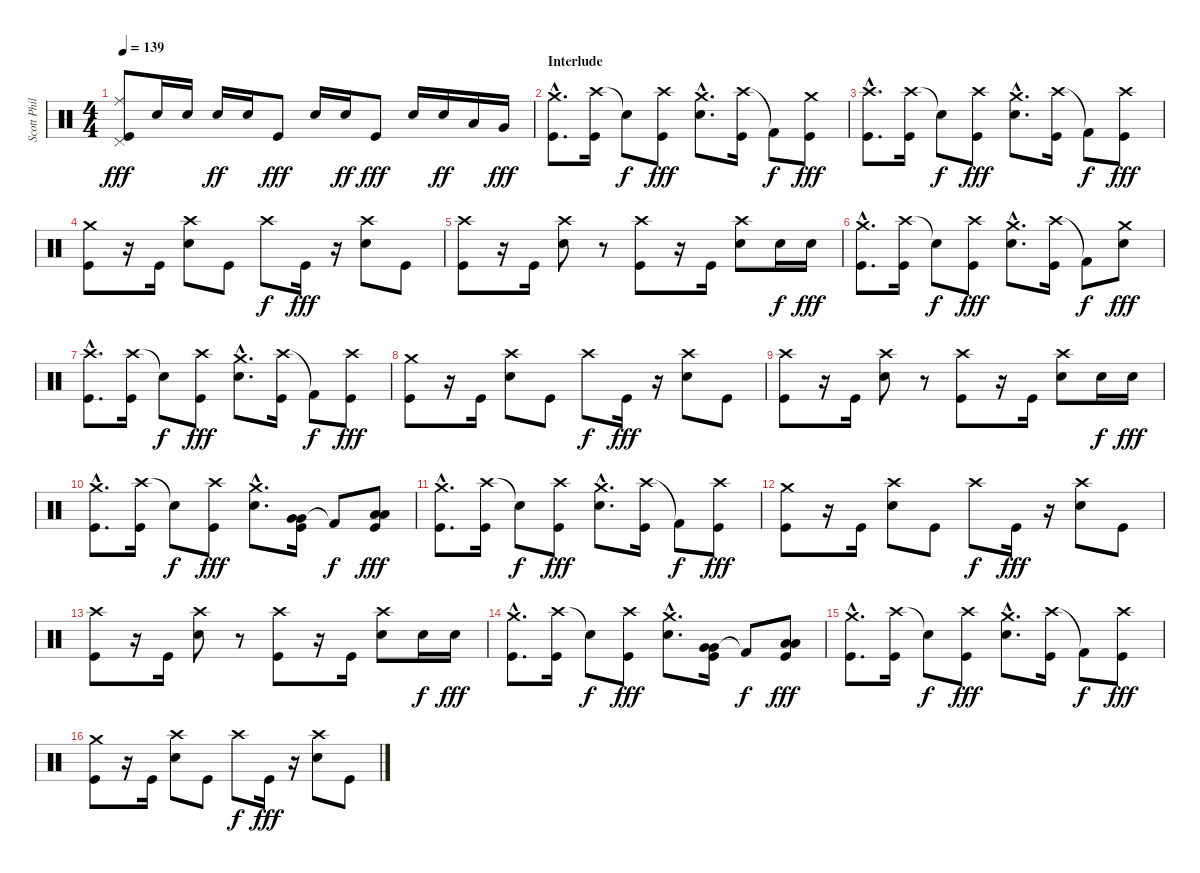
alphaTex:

\track ("Scott Phillips - Drums" "Scott Phil") {instrument percussion}
\staff {score}
\articulation defaults
\ts (4 4)
\tempo 139
\clef neutral
\ks c
("Pedal Hi-Hat (hit)" "Ride (middle)" "Kick (hit)").8{dy fff} "Electric Snare (hit)".16 "Electric Snare (hit)".16 "Electric Snare (hit)".16{dy ff} "Electric Snare (hit)".16 "Kick (hit)".8{dy fff} "Electric Snare (hit)".16 "Electric Snare (hit)".16{dy ff} "Kick (hit)".8{dy fff} "Electric Snare (hit)".16 "Electric Snare (hit)".16{dy ff} "Low Tom (hit)".16 "Very Low Tom (hit)".16{dy fff} |
\section ("" "Interlude")
("Crash medium (hit)"{hac} "Kick (hit)"{hac}).8{d} ("Crash high (hit)" "Kick (hit)").16 "Snare (hit)"{t}.8{dy f} ("Crash high (hit)" "Kick (hit)").8{dy fff} ("Crash medium (hit)"{hac} "Electric Snare (hit)"{hac}).8{d} ("Crash high (hit)" "Kick (hit)").16 "Kick (hit) 2"{t}.8{dy f} ("Crash medium (hit)" "Kick (hit)").8{dy fff} |
("Crash high (hit)"{hac} "Kick (hit)"{hac}).8{d} ("Crash high (hit)" "Kick (hit)").16 "Snare (hit)"{t}.8{dy f} ("Crash high (hit)" "Kick (hit)").8{dy fff} ("Crash medium (hit)"{hac} "Electric Snare (hit)"{hac}).8{d} ("Crash high (hit)" "Kick (hit)").16 "Kick (hit) 2"{t}.8{dy f} ("Crash high (hit)" "Kick (hit)").8{dy fff} |
("Crash medium (hit)" "Kick (hit)").8 r.16 "Kick (hit)".16 ("Crash high (hit)" "Electric Snare (hit)").8 "Kick (hit)".8 "Crash high (hit)".8{dy f} "Kick (hit)".16{dy fff} r.16 ("Crash high (hit)" "Electric Snare (hit)").8 "Kick (hit)".8 |
("Crash high (hit)" "Kick (hit)").8 r.16 "Kick (hit)".16 ("Crash high (hit)" "Electric Snare (hit)").8 r.8 ("Crash high (hit)" "Kick (hit)").8 r.16 "Kick (hit)".16 ("Crash high (hit)" "Electric Snare (hit)").8 "Electric Snare (hit)".16{dy f} "Electric Snare (hit)".16{dy fff} |
("Crash medium (hit)"{hac} "Kick (hit)"{hac}).8{d} ("Crash high (hit)" "Kick (hit)").16 "Snare (hit)"{t}.8{dy f} ("Crash high (hit)" "Kick (hit)").8{dy fff} ("Crash medium (hit)"{hac} "Electric Snare (hit)"{hac}).8{d} ("Crash high (hit)" "Kick (hit)").16 "Kick (hit) 2"{t}.8{dy f} ("Crash medium (hit)" "Electric Snare (hit)").8{dy fff} |
("Crash high (hit)"{hac} "Kick (hit)"{hac}).8{d} ("Crash high (hit)" "Kick (hit)").16 "Snare (hit)"{t}.8{dy f} ("Crash high (hit)" "Kick (hit)").8{dy fff} ("Crash medium (hit)"{hac} "Electric Snare (hit)"{hac}).8{d} ("Crash high (hit)" "Kick (hit)").16 "Kick (hit) 2"{t}.8{dy f} ("Crash high (hit)" "Kick (hit)").8{dy fff} |
("Crash medium (hit)" "Kick (hit)").8 r.16 "Kick (hit)".16 ("Crash high (hit)" "Electric Snare (hit)").8 "Kick (hit)".8 "Crash high (hit)".8{dy f} "Kick (hit)".16{dy fff} r.16 ("Crash high (hit)" "Electric Snare (hit)").8 "Kick (hit)".8 |
("Crash high (hit)" "Kick (hit)").8 r.16 "Kick (hit)".16 ("Crash high (hit)" "Electric Snare (hit)").8 r.8 ("Crash high (hit)" "Kick (hit)").8 r.16 "Kick (hit)".16 ("Crash high (hit)" "Electric Snare (hit)").8 "Electric Snare (hit)".16{dy f} "Electric Snare (hit)".16{dy fff} |
("Crash medium (hit)"{hac} "Kick (hit)"{hac}).8{d} ("Crash high (hit)" "Kick (hit)").16 "Snare (hit)"{t}.8{dy f} ("Crash high (hit)" "Kick (hit)").8{dy fff} ("Crash medium (hit)"{hac} "Electric Snare (hit)"{hac}).8{d} ("Very Low Tom (hit)" "Very Low Tom (hit)" "Kick (hit)").16 "Kick (hit) 2"{t}.8{dy f} ("Low Floor Tom (hit)" "Low Floor Tom (hit)" "Kick (hit)").8{dy fff} |
("Crash medium (hit)"{hac} "Kick (hit)"{hac}).8{d} ("Crash high (hit)" "Kick (hit)").16 "Snare (hit)"{t}.8{dy f} ("Crash high (hit)" "Kick (hit)").8{dy fff} ("Crash medium (hit)"{hac} "Electric Snare (hit)"{hac}).8{d} ("Crash high (hit)" "Kick (hit)").16 "Kick (hit) 2"{t}.8{dy f} ("Crash high (hit)" "Kick (hit)").8{dy fff} |
("Crash medium (hit)" "Kick (hit)").8 r.16 "Kick (hit)".16 ("Crash high (hit)" "Electric Snare (hit)").8 "Kick (hit)".8 "Crash high (hit)".8{dy f} "Kick (hit)".16{dy fff} r.16 ("Crash high (hit)" "Electric Snare (hit)").8 "Kick (hit)".8 |
("Crash high (hit)" "Kick (hit)").8 r.16 "Kick (hit)".16 ("Crash high (hit)" "Electric Snare (hit)").8 r.8 ("Crash high (hit)" "Kick (hit)").8 r.16 "Kick (hit)".16 ("Crash high (hit)" "Electric Snare (hit)").8 "Electric Snare (hit)".16{dy f} "Electric Snare (hit)".16{dy fff} |
("Crash medium (hit)"{hac} "Kick (hit)"{hac}).8{d} ("Crash high (hit)" "Kick (hit)").16 "Snare (hit)"{t}.8{dy f} ("Crash high (hit)" "Kick (hit)").8{dy fff} ("Crash medium (hit)"{hac} "Electric Snare (hit)"{hac}).8{d} ("Very Low Tom (hit)" "Very Low Tom (hit)" "Kick (hit)").16 "Kick (hit) 2"{t}.8{dy f} ("Low Floor Tom (hit)" "Low Floor Tom (hit)" "Kick (hit)").8{dy fff} |
("Crash medium (hit)"{hac} "Kick (hit)"{hac}).8{d} ("Crash high (hit)" "Kick (hit)").16 "Snare (hit)"{t}.8{dy f} ("Crash high (hit)" "Kick (hit)").8{dy fff} ("Crash medium (hit)"{hac} "Electric Snare (hit)"{hac}).8{d} ("Crash high (hit)" "Kick (hit)").16 "Kick (hit) 2"{t}.8{dy f} ("Crash high (hit)" "Kick (hit)").8{dy fff} |
("Crash medium (hit)" "Kick (hit)").8 r.16 "Kick (hit)".16 ("Crash high (hit)" "Electric Snare (hit)").8 "Kick (hit)".8 "Crash high (hit)".8{dy f} "Kick (hit)".16{dy fff} r.16 ("Crash high (hit)" "Electric Snare (hit)").8 "Kick (hit)".8
